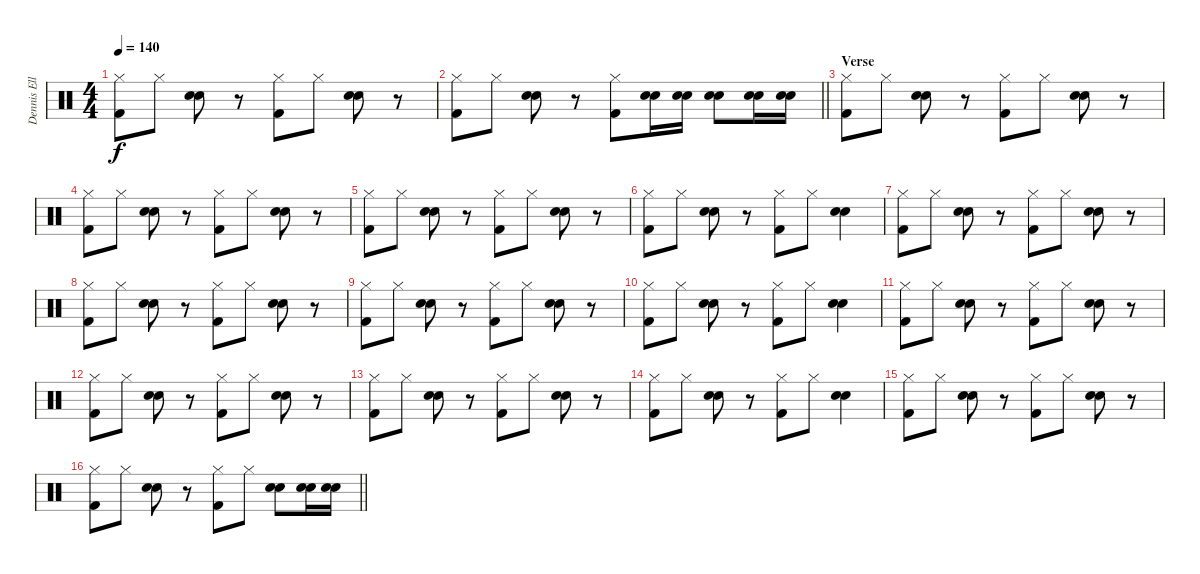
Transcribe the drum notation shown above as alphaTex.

\track ("Dennis Elliott (Drums)" "Dennis Ell") {instrument percussion}
\staff {score}
\articulation defaults
\ts (4 4)
\tempo 140
\clef neutral
\ks c
("Hi-Hat (closed)" "Kick (hit) 2").8{dy f} "Hi-Hat (closed)".8 ("Electric Snare (hit)" "Snare (hit) 2").8 r.8 ("Hi-Hat (closed)" "Kick (hit) 2").8 "Hi-Hat (closed)".8 ("Electric Snare (hit)" "Snare (hit) 2").8 r.8 |
\barLineRight lightlight
("Hi-Hat (closed)" "Kick (hit) 2").8 "Hi-Hat (closed)".8 ("Electric Snare (hit)" "Snare (hit) 2").8 r.8 ("Hi-Hat (closed)" "Kick (hit) 2").8 ("Electric Snare (hit)" "Snare (hit) 2").16 ("Electric Snare (hit)" "Snare (hit) 2").16 ("Electric Snare (hit)" "Snare (hit) 2").8 ("Electric Snare (hit)" "Snare (hit) 2").16 ("Electric Snare (hit)" "Snare (hit) 2").16 |
\section ("" "Verse")
("Hi-Hat (closed)" "Kick (hit) 2").8 "Hi-Hat (closed)".8 ("Electric Snare (hit)" "Snare (hit) 2").8 r.8 ("Hi-Hat (closed)" "Kick (hit) 2").8 "Hi-Hat (closed)".8 ("Electric Snare (hit)" "Snare (hit) 2").8 r.8 |
("Hi-Hat (closed)" "Kick (hit) 2").8 "Hi-Hat (closed)".8 ("Electric Snare (hit)" "Snare (hit) 2").8 r.8 ("Hi-Hat (closed)" "Kick (hit) 2").8 "Hi-Hat (closed)".8 ("Electric Snare (hit)" "Snare (hit) 2").8 r.8 |
("Hi-Hat (closed)" "Kick (hit) 2").8 "Hi-Hat (closed)".8 ("Electric Snare (hit)" "Snare (hit) 2").8 r.8 ("Hi-Hat (closed)" "Kick (hit) 2").8 "Hi-Hat (closed)".8 ("Electric Snare (hit)" "Snare (hit) 2").8 r.8 |
("Hi-Hat (closed)" "Kick (hit) 2").8 "Hi-Hat (closed)".8 ("Electric Snare (hit)" "Snare (hit) 2").8 r.8 ("Hi-Hat (closed)" "Kick (hit) 2").8 "Hi-Hat (closed)".8 ("Electric Snare (hit)" "Snare (hit) 2").4 |
("Hi-Hat (closed)" "Kick (hit) 2").8 "Hi-Hat (closed)".8 ("Electric Snare (hit)" "Snare (hit) 2").8 r.8 ("Hi-Hat (closed)" "Kick (hit) 2").8 "Hi-Hat (closed)".8 ("Electric Snare (hit)" "Snare (hit) 2").8 r.8 |
("Hi-Hat (closed)" "Kick (hit) 2").8 "Hi-Hat (closed)".8 ("Electric Snare (hit)" "Snare (hit) 2").8 r.8 ("Hi-Hat (closed)" "Kick (hit) 2").8 "Hi-Hat (closed)".8 ("Electric Snare (hit)" "Snare (hit) 2").8 r.8 |
("Hi-Hat (closed)" "Kick (hit) 2").8 "Hi-Hat (closed)".8 ("Electric Snare (hit)" "Snare (hit) 2").8 r.8 ("Hi-Hat (closed)" "Kick (hit) 2").8 "Hi-Hat (closed)".8 ("Electric Snare (hit)" "Snare (hit) 2").8 r.8 |
("Hi-Hat (closed)" "Kick (hit) 2").8 "Hi-Hat (closed)".8 ("Electric Snare (hit)" "Snare (hit) 2").8 r.8 ("Hi-Hat (closed)" "Kick (hit) 2").8 "Hi-Hat (closed)".8 ("Electric Snare (hit)" "Snare (hit) 2").4 |
("Hi-Hat (closed)" "Kick (hit) 2").8 "Hi-Hat (closed)".8 ("Electric Snare (hit)" "Snare (hit) 2").8 r.8 ("Hi-Hat (closed)" "Kick (hit) 2").8 "Hi-Hat (closed)".8 ("Electric Snare (hit)" "Snare (hit) 2").8 r.8 |
("Hi-Hat (closed)" "Kick (hit) 2").8 "Hi-Hat (closed)".8 ("Electric Snare (hit)" "Snare (hit) 2").8 r.8 ("Hi-Hat (closed)" "Kick (hit) 2").8 "Hi-Hat (closed)".8 ("Electric Snare (hit)" "Snare (hit) 2").8 r.8 |
("Hi-Hat (closed)" "Kick (hit) 2").8 "Hi-Hat (closed)".8 ("Electric Snare (hit)" "Snare (hit) 2").8 r.8 ("Hi-Hat (closed)" "Kick (hit) 2").8 "Hi-Hat (closed)".8 ("Electric Snare (hit)" "Snare (hit) 2").8 r.8 |
("Hi-Hat (closed)" "Kick (hit) 2").8 "Hi-Hat (closed)".8 ("Electric Snare (hit)" "Snare (hit) 2").8 r.8 ("Hi-Hat (closed)" "Kick (hit) 2").8 "Hi-Hat (closed)".8 ("Electric Snare (hit)" "Snare (hit) 2").4 |
("Hi-Hat (closed)" "Kick (hit) 2").8 "Hi-Hat (closed)".8 ("Electric Snare (hit)" "Snare (hit) 2").8 r.8 ("Hi-Hat (closed)" "Kick (hit) 2").8 "Hi-Hat (closed)".8 ("Electric Snare (hit)" "Snare (hit) 2").8 r.8 |
\barLineRight lightlight
("Hi-Hat (closed)" "Kick (hit) 2").8 "Hi-Hat (closed)".8 ("Electric Snare (hit)" "Snare (hit) 2").8 r.8 ("Hi-Hat (closed)" "Kick (hit) 2").8 "Hi-Hat (closed)".8 ("Electric Snare (hit)" "Snare (hit) 2").8 ("Electric Snare (hit)" "Snare (hit) 2").16 ("Electric Snare (hit)" "Snare (hit) 2").16
